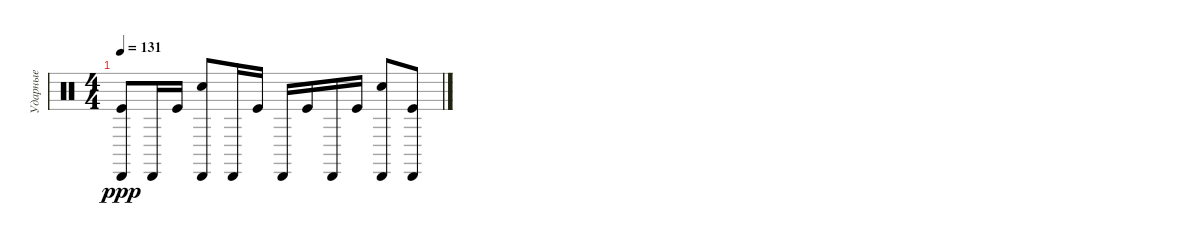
\track ("Ударные" "Ударные") {instrument percussion}
\staff {score}
\articulation defaults
\ts (4 4)
\tempo 131
\clef neutral
\ks c
("Kick (hit)" "Cabasa (hit)").8{dy ppp} "Cabasa (hit)".16 "Kick (hit)".16 ("Snare (hit) 2" "Cabasa (hit)").8 "Cabasa (hit)".16 "Kick (hit)".16 "Cabasa (hit)".16 "Kick (hit)".16 "Cabasa (hit)".16 "Kick (hit)".16 ("Snare (hit) 2" "Cabasa (hit)").8 ("Kick (hit)" "Cabasa (hit)").8
